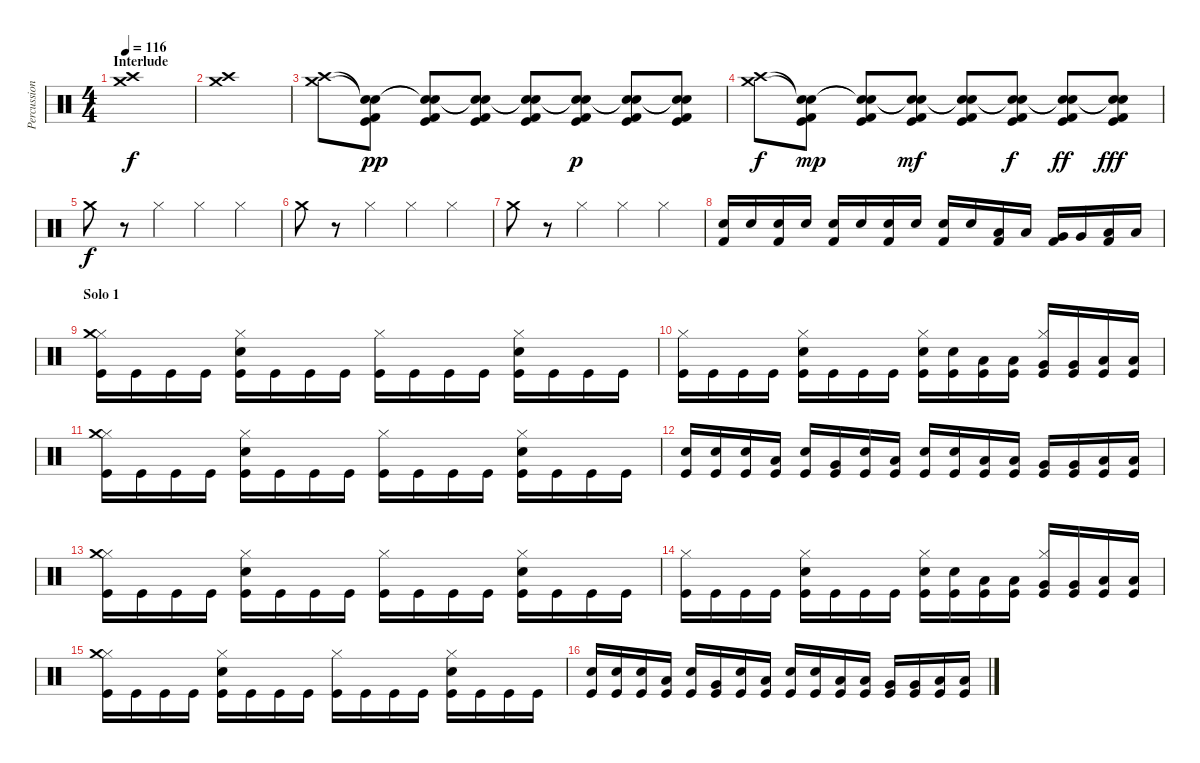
\track ("Percussion" "Percussion") {instrument percussion}
\staff {score}
\articulation defaults
\ts (4 4)
\section ("" "Interlude")
\tempo 116
\clef neutral
\ks c
("Crash medium (hit)" "Crash high (hit)").1{dy f} |
("Crash medium (hit)" "Crash high (hit)").1 |
("Crash medium (hit)" "Crash high (hit)").8 ("Snare (hit)"{t} "Snare (hit)"{t} "Kick (hit)" "Kick (hit) 2").8{dy pp} ("Snare (hit)"{t} "Snare (hit)"{t} "Kick (hit)" "Kick (hit) 2").8 ("Snare (hit)"{t} "Snare (hit)"{t} "Kick (hit)" "Kick (hit) 2").8 ("Snare (hit)"{t} "Snare (hit)"{t} "Kick (hit)" "Kick (hit) 2").8 ("Snare (hit)"{t} "Snare (hit)"{t} "Kick (hit)" "Kick (hit) 2").8{dy p} ("Snare (hit)"{t} "Snare (hit)"{t} "Kick (hit)" "Kick (hit) 2").8 ("Snare (hit)"{t} "Snare (hit)"{t} "Kick (hit)" "Kick (hit) 2").8 |
("Crash medium (hit)" "Crash high (hit)").8{dy f} ("Snare (hit)"{t} "Snare (hit)"{t} "Kick (hit)" "Kick (hit) 2").8{dy mp} ("Snare (hit)"{t} "Snare (hit)"{t} "Kick (hit)" "Kick (hit) 2").8 ("Snare (hit)"{t} "Snare (hit)"{t} "Kick (hit)" "Kick (hit) 2").8{dy mf} ("Snare (hit)"{t} "Snare (hit)"{t} "Kick (hit)" "Kick (hit) 2").8 ("Snare (hit)"{t} "Snare (hit)"{t} "Kick (hit)" "Kick (hit) 2").8{dy f} ("Snare (hit)"{t} "Snare (hit)"{t} "Kick (hit)" "Kick (hit) 2").8{dy ff} ("Snare (hit)"{t} "Snare (hit)"{t} "Kick (hit)" "Kick (hit) 2").8{dy fff} |
"Crash medium (hit)".8{dy f} r.8 "Hi-Hat (closed)".4 "Hi-Hat (closed)".4 "Hi-Hat (closed)".4 |
"Crash medium (hit)".8 r.8 "Hi-Hat (closed)".4 "Hi-Hat (closed)".4 "Hi-Hat (closed)".4 |
"Crash medium (hit)".8 r.8 "Hi-Hat (closed)".4 "Hi-Hat (closed)".4 "Hi-Hat (closed)".4 |
("Snare (hit) 2" "Kick (hit) 2").16 "Snare (hit) 2".16 ("Snare (hit) 2" "Kick (hit) 2").16 "Snare (hit) 2".16 ("Snare (hit) 2" "Kick (hit) 2").16 "Snare (hit) 2".16 ("Snare (hit) 2" "Kick (hit) 2").16 "Snare (hit) 2".16 ("Snare (hit) 2" "Kick (hit) 2").16 "Snare (hit) 2".16 ("Low Tom (hit)" "Kick (hit) 2").16 "Low Tom (hit)".16 ("Very Low Tom (hit)" "Kick (hit) 2").16 "Very Low Tom (hit)".16 ("Low Floor Tom (hit)" "Kick (hit) 2").16 "Low Floor Tom (hit)".16 |
\section ("" "Solo 1")
("Hi-Hat (closed)" "Crash medium (hit)" "Kick (hit)").16 "Kick (hit)".16 "Kick (hit)".16 "Kick (hit)".16 ("Hi-Hat (closed)" "Snare (hit) 2" "Kick (hit)").16 "Kick (hit)".16 "Kick (hit)".16 "Kick (hit)".16 ("Hi-Hat (closed)" "Kick (hit)").16 "Kick (hit)".16 "Kick (hit)".16 "Kick (hit)".16 ("Hi-Hat (closed)" "Snare (hit) 2" "Kick (hit)").16 "Kick (hit)".16 "Kick (hit)".16 "Kick (hit)".16 |
("Hi-Hat (closed)" "Kick (hit)").16 "Kick (hit)".16 "Kick (hit)".16 "Kick (hit)".16 ("Hi-Hat (closed)" "Snare (hit) 2" "Kick (hit)").16 "Kick (hit)".16 "Kick (hit)".16 "Kick (hit)".16 ("Hi-Hat (closed)" "Snare (hit) 2" "Kick (hit)").16 ("Snare (hit) 2" "Kick (hit)").16 ("Low Tom (hit)" "Kick (hit)").16 ("Low Tom (hit)" "Kick (hit)").16 ("Hi-Hat (closed)" "Very Low Tom (hit)" "Kick (hit)").16 ("Very Low Tom (hit)" "Kick (hit)").16 ("Low Floor Tom (hit)" "Kick (hit)").16 ("Low Floor Tom (hit)" "Kick (hit)").16 |
("Hi-Hat (closed)" "Crash medium (hit)" "Kick (hit)").16 "Kick (hit)".16 "Kick (hit)".16 "Kick (hit)".16 ("Hi-Hat (closed)" "Snare (hit) 2" "Kick (hit)").16 "Kick (hit)".16 "Kick (hit)".16 "Kick (hit)".16 ("Hi-Hat (closed)" "Kick (hit)").16 "Kick (hit)".16 "Kick (hit)".16 "Kick (hit)".16 ("Hi-Hat (closed)" "Snare (hit) 2" "Kick (hit)").16 "Kick (hit)".16 "Kick (hit)".16 "Kick (hit)".16 |
("Snare (hit) 2" "Kick (hit)").16 ("Snare (hit) 2" "Kick (hit)").16 ("Snare (hit) 2" "Kick (hit)").16 ("Low Tom (hit)" "Kick (hit)").16 ("Snare (hit) 2" "Kick (hit)").16 ("Very Low Tom (hit)" "Kick (hit)").16 ("Snare (hit) 2" "Kick (hit)").16 ("Low Floor Tom (hit)" "Kick (hit)").16 ("Snare (hit) 2" "Kick (hit)").16 ("Snare (hit) 2" "Kick (hit)").16 ("Low Tom (hit)" "Kick (hit)").16 ("Low Tom (hit)" "Kick (hit)").16 ("Very Low Tom (hit)" "Kick (hit)").16 ("Very Low Tom (hit)" "Kick (hit)").16 ("Low Floor Tom (hit)" "Kick (hit)").16 ("Low Floor Tom (hit)" "Kick (hit)").16 |
("Hi-Hat (closed)" "Crash medium (hit)" "Kick (hit)").16 "Kick (hit)".16 "Kick (hit)".16 "Kick (hit)".16 ("Hi-Hat (closed)" "Snare (hit) 2" "Kick (hit)").16 "Kick (hit)".16 "Kick (hit)".16 "Kick (hit)".16 ("Hi-Hat (closed)" "Kick (hit)").16 "Kick (hit)".16 "Kick (hit)".16 "Kick (hit)".16 ("Hi-Hat (closed)" "Snare (hit) 2" "Kick (hit)").16 "Kick (hit)".16 "Kick (hit)".16 "Kick (hit)".16 |
("Hi-Hat (closed)" "Kick (hit)").16 "Kick (hit)".16 "Kick (hit)".16 "Kick (hit)".16 ("Hi-Hat (closed)" "Snare (hit) 2" "Kick (hit)").16 "Kick (hit)".16 "Kick (hit)".16 "Kick (hit)".16 ("Hi-Hat (closed)" "Snare (hit) 2" "Kick (hit)").16 ("Snare (hit) 2" "Kick (hit)").16 ("Low Tom (hit)" "Kick (hit)").16 ("Low Tom (hit)" "Kick (hit)").16 ("Hi-Hat (closed)" "Very Low Tom (hit)" "Kick (hit)").16 ("Very Low Tom (hit)" "Kick (hit)").16 ("Low Floor Tom (hit)" "Kick (hit)").16 ("Low Floor Tom (hit)" "Kick (hit)").16 |
("Hi-Hat (closed)" "Crash medium (hit)" "Kick (hit)").16 "Kick (hit)".16 "Kick (hit)".16 "Kick (hit)".16 ("Hi-Hat (closed)" "Snare (hit) 2" "Kick (hit)").16 "Kick (hit)".16 "Kick (hit)".16 "Kick (hit)".16 ("Hi-Hat (closed)" "Kick (hit)").16 "Kick (hit)".16 "Kick (hit)".16 "Kick (hit)".16 ("Hi-Hat (closed)" "Snare (hit) 2" "Kick (hit)").16 "Kick (hit)".16 "Kick (hit)".16 "Kick (hit)".16 |
("Snare (hit) 2" "Kick (hit)").16 ("Snare (hit) 2" "Kick (hit)").16 ("Snare (hit) 2" "Kick (hit)").16 ("Low Tom (hit)" "Kick (hit)").16 ("Snare (hit) 2" "Kick (hit)").16 ("Very Low Tom (hit)" "Kick (hit)").16 ("Snare (hit) 2" "Kick (hit)").16 ("Low Floor Tom (hit)" "Kick (hit)").16 ("Snare (hit) 2" "Kick (hit)").16 ("Snare (hit) 2" "Kick (hit)").16 ("Low Tom (hit)" "Kick (hit)").16 ("Low Tom (hit)" "Kick (hit)").16 ("Very Low Tom (hit)" "Kick (hit)").16 ("Very Low Tom (hit)" "Kick (hit)").16 ("Low Floor Tom (hit)" "Kick (hit)").16 ("Low Floor Tom (hit)" "Kick (hit)").16
